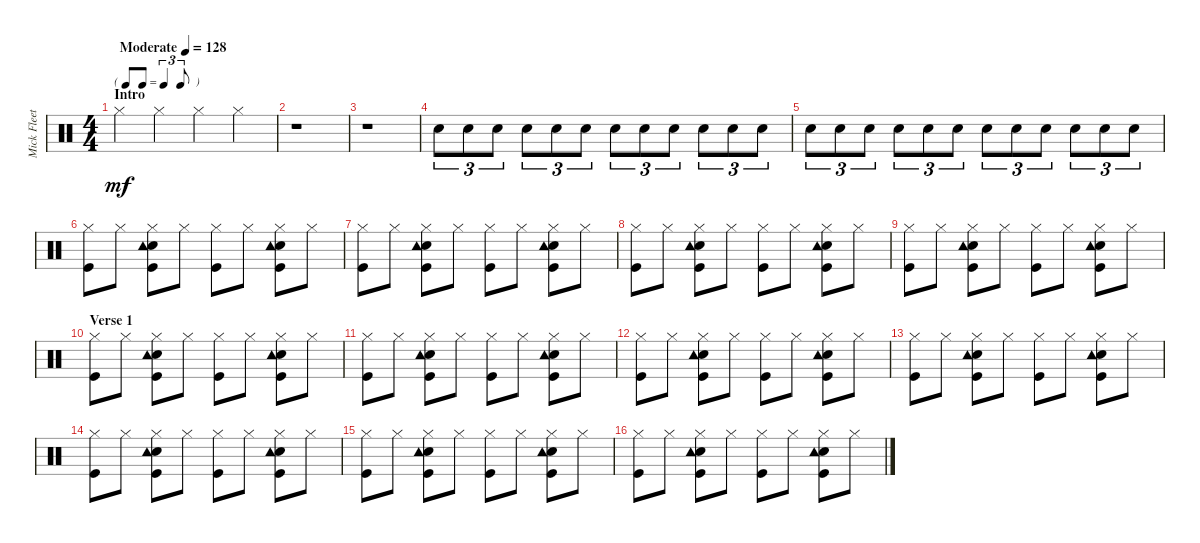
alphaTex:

\track ("Mick Fleetwood - Drums" "Mick Fleet") {instrument percussion}
\staff {score}
\articulation defaults
\ts (4 4)
\tf triplet8th
\section ("" "Intro")
\tempo (128 "Moderate")
\clef neutral
\ks c "Hi-Hat (closed)".4{dy mf} "Hi-Hat (closed)".4 "Hi-Hat (closed)".4 "Hi-Hat (closed)".4
|
r.1 |
r.1 |
"Snare (hit) 2".8{tu (3 2)} "Snare (hit) 2".8{tu (3 2)} "Snare (hit) 2".8{tu (3 2)} "Snare (hit) 2".8{tu (3 2)} "Snare (hit) 2".8{tu (3 2)} "Snare (hit) 2".8{tu (3 2)} "Snare (hit) 2".8{tu (3 2)} "Snare (hit) 2".8{tu (3 2)} "Snare (hit) 2".8{tu (3 2)} "Snare (hit) 2".8{tu (3 2)} "Snare (hit) 2".8{tu (3 2)} "Snare (hit) 2".8{tu (3 2)} |
"Snare (hit) 2".8{tu (3 2)} "Snare (hit) 2".8{tu (3 2)} "Snare (hit) 2".8{tu (3 2)} "Snare (hit) 2".8{tu (3 2)} "Snare (hit) 2".8{tu (3 2)} "Snare (hit) 2".8{tu (3 2)} "Snare (hit) 2".8{tu (3 2)} "Snare (hit) 2".8{tu (3 2)} "Snare (hit) 2".8{tu (3 2)} "Snare (hit) 2".8{tu (3 2)} "Snare (hit) 2".8{tu (3 2)} "Snare (hit) 2".8{tu (3 2)} |
("Kick (hit)" "Hi-Hat (closed)").8 "Hi-Hat (closed)".8 ("Kick (hit)" "Snare (hit) 2" "Hi-Hat (closed)" "Tambourine (hit)").8 "Hi-Hat (closed)".8 ("Kick (hit)" "Hi-Hat (closed)").8 "Hi-Hat (closed)".8 ("Kick (hit)" "Snare (hit) 2" "Hi-Hat (closed)" "Tambourine (hit)").8 "Hi-Hat (closed)".8 |
("Kick (hit)" "Hi-Hat (closed)").8 "Hi-Hat (closed)".8 ("Kick (hit)" "Snare (hit) 2" "Hi-Hat (closed)" "Tambourine (hit)").8 "Hi-Hat (closed)".8 ("Kick (hit)" "Hi-Hat (closed)").8 "Hi-Hat (closed)".8 ("Kick (hit)" "Snare (hit) 2" "Hi-Hat (closed)" "Tambourine (hit)").8 "Hi-Hat (closed)".8 |
("Kick (hit)" "Hi-Hat (closed)").8 "Hi-Hat (closed)".8 ("Kick (hit)" "Snare (hit) 2" "Hi-Hat (closed)" "Tambourine (hit)").8 "Hi-Hat (closed)".8 ("Kick (hit)" "Hi-Hat (closed)").8 "Hi-Hat (closed)".8 ("Kick (hit)" "Snare (hit) 2" "Hi-Hat (closed)" "Tambourine (hit)").8 "Hi-Hat (closed)".8 |
("Kick (hit)" "Hi-Hat (closed)").8 "Hi-Hat (closed)".8 ("Kick (hit)" "Snare (hit) 2" "Hi-Hat (closed)" "Tambourine (hit)").8 "Hi-Hat (closed)".8 ("Kick (hit)" "Hi-Hat (closed)").8 "Hi-Hat (closed)".8 ("Kick (hit)" "Snare (hit) 2" "Hi-Hat (closed)" "Tambourine (hit)").8 "Hi-Hat (closed)".8 |
\section ("" "Verse 1")
("Kick (hit)" "Hi-Hat (closed)").8 "Hi-Hat (closed)".8 ("Kick (hit)" "Snare (hit) 2" "Hi-Hat (closed)" "Tambourine (hit)").8 "Hi-Hat (closed)".8 ("Kick (hit)" "Hi-Hat (closed)").8 "Hi-Hat (closed)".8 ("Kick (hit)" "Snare (hit) 2" "Hi-Hat (closed)" "Tambourine (hit)").8 "Hi-Hat (closed)".8 |
("Kick (hit)" "Hi-Hat (closed)").8 "Hi-Hat (closed)".8 ("Kick (hit)" "Snare (hit) 2" "Hi-Hat (closed)" "Tambourine (hit)").8 "Hi-Hat (closed)".8 ("Kick (hit)" "Hi-Hat (closed)").8 "Hi-Hat (closed)".8 ("Kick (hit)" "Snare (hit) 2" "Hi-Hat (closed)" "Tambourine (hit)").8 "Hi-Hat (closed)".8 |
("Kick (hit)" "Hi-Hat (closed)").8 "Hi-Hat (closed)".8 ("Kick (hit)" "Snare (hit) 2" "Hi-Hat (closed)" "Tambourine (hit)").8 "Hi-Hat (closed)".8 ("Kick (hit)" "Hi-Hat (closed)").8 "Hi-Hat (closed)".8 ("Kick (hit)" "Snare (hit) 2" "Hi-Hat (closed)" "Tambourine (hit)").8 "Hi-Hat (closed)".8 |
("Kick (hit)" "Hi-Hat (closed)").8 "Hi-Hat (closed)".8 ("Kick (hit)" "Snare (hit) 2" "Hi-Hat (closed)" "Tambourine (hit)").8 "Hi-Hat (closed)".8 ("Kick (hit)" "Hi-Hat (closed)").8 "Hi-Hat (closed)".8 ("Kick (hit)" "Snare (hit) 2" "Hi-Hat (closed)" "Tambourine (hit)").8 "Hi-Hat (closed)".8 |
("Kick (hit)" "Hi-Hat (closed)").8 "Hi-Hat (closed)".8 ("Kick (hit)" "Snare (hit) 2" "Hi-Hat (closed)" "Tambourine (hit)").8 "Hi-Hat (closed)".8 ("Kick (hit)" "Hi-Hat (closed)").8 "Hi-Hat (closed)".8 ("Kick (hit)" "Snare (hit) 2" "Hi-Hat (closed)" "Tambourine (hit)").8 "Hi-Hat (closed)".8 |
("Kick (hit)" "Hi-Hat (closed)").8 "Hi-Hat (closed)".8 ("Kick (hit)" "Snare (hit) 2" "Hi-Hat (closed)" "Tambourine (hit)").8 "Hi-Hat (closed)".8 ("Kick (hit)" "Hi-Hat (closed)").8 "Hi-Hat (closed)".8 ("Kick (hit)" "Snare (hit) 2" "Hi-Hat (closed)" "Tambourine (hit)").8 "Hi-Hat (closed)".8 |
("Kick (hit)" "Hi-Hat (closed)").8 "Hi-Hat (closed)".8 ("Kick (hit)" "Snare (hit) 2" "Hi-Hat (closed)" "Tambourine (hit)").8 "Hi-Hat (closed)".8 ("Kick (hit)" "Hi-Hat (closed)").8 "Hi-Hat (closed)".8 ("Kick (hit)" "Snare (hit) 2" "Hi-Hat (closed)" "Tambourine (hit)").8 "Hi-Hat (closed)".8
